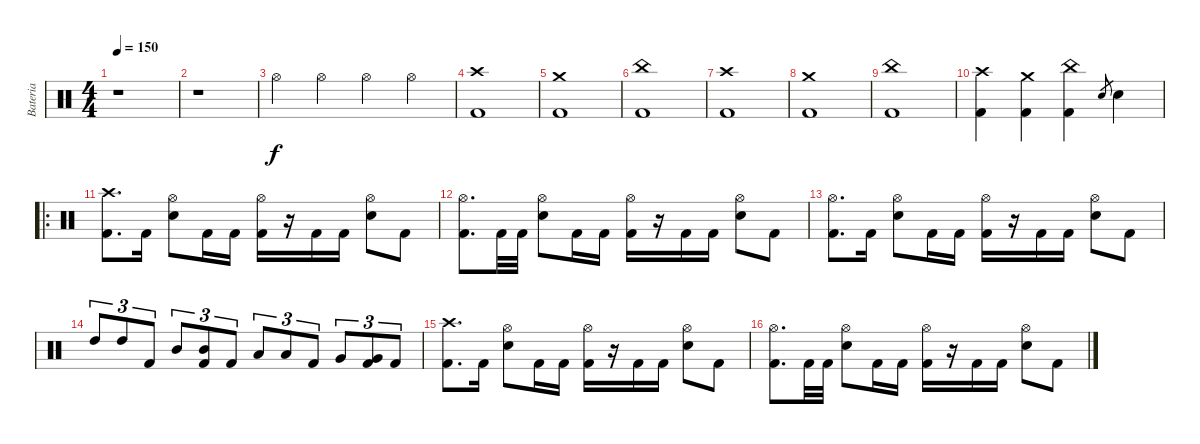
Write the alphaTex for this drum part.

\track ("Bateria" "Bateria") {instrument percussion}
\staff {score}
\articulation defaults
\ts (4 4)
\tempo 150
\clef neutral
\ks c
r.1{dy f} |
r.1 |
"Hi-Hat (open)".4 "Hi-Hat (open)".4 "Hi-Hat (open)".4 "Hi-Hat (open)".4 |
("Crash high (hit)" "Kick (hit) 2").1 |
("Crash medium (hit)" "Kick (hit) 2").1 |
("China (hit)" "Kick (hit) 2").1 |
("Crash high (hit)" "Kick (hit) 2").1 |
("Crash medium (hit)" "Kick (hit) 2").1 |
("China (hit)" "Kick (hit) 2").1 |
("Crash high (hit)" "Kick (hit) 2").4 ("Crash medium (hit)" "Kick (hit) 2").4 ("China (hit)" "Kick (hit) 2").4 "Snare (hit) 2".8{gr} "Snare (hit) 2".4 |
\ro
("Crash high (hit)" "Kick (hit) 2").8{d} "Kick (hit) 2".16 ("Hi-Hat (open)" "Snare (hit) 2").8 "Kick (hit) 2".16 "Kick (hit) 2".16 ("Hi-Hat (open)" "Kick (hit) 2").16 r.16 "Kick (hit) 2".16 "Kick (hit) 2".16 ("Hi-Hat (open)" "Snare (hit) 2").8 "Kick (hit) 2".8 |
("Hi-Hat (open)" "Kick (hit) 2").8{d} "Kick (hit) 2".32 "Kick (hit) 2".32 ("Hi-Hat (open)" "Snare (hit) 2").8 "Kick (hit) 2".16 "Kick (hit) 2".16 ("Hi-Hat (open)" "Kick (hit) 2").16 r.16 "Kick (hit) 2".16 "Kick (hit) 2".16 ("Hi-Hat (open)" "Snare (hit) 2").8 "Kick (hit) 2".8 |
("Hi-Hat (open)" "Kick (hit) 2").8{d} "Kick (hit) 2".16 ("Hi-Hat (open)" "Snare (hit) 2").8 "Kick (hit) 2".16 "Kick (hit) 2".16 ("Hi-Hat (open)" "Kick (hit) 2").16 r.16 "Kick (hit) 2".16 "Kick (hit) 2".16 ("Hi-Hat (open)" "Snare (hit) 2").8 "Kick (hit) 2".8 |
"High Tom (hit)".8{tu (3 2)} "High Tom (hit)".8{tu (3 2)} "Kick (hit) 2".8{tu (3 2)} "Mid Tom (hit)".8{tu (3 2)} ("Mid Tom (hit)" "Kick (hit) 2").8{tu (3 2)} "Kick (hit) 2".8{tu (3 2)} "Low Tom (hit)".8{tu (3 2)} "Low Tom (hit)".8{tu (3 2)} "Kick (hit) 2".8{tu (3 2)} "Very Low Tom (hit)".8{tu (3 2)} ("Very Low Tom (hit)" "Kick (hit) 2").8{tu (3 2)} "Kick (hit) 2".8{tu (3 2)} |
("Crash high (hit)" "Kick (hit) 2").8{d} "Kick (hit) 2".16 ("Hi-Hat (open)" "Snare (hit) 2").8 "Kick (hit) 2".16 "Kick (hit) 2".16 ("Hi-Hat (open)" "Kick (hit) 2").16 r.16 "Kick (hit) 2".16 "Kick (hit) 2".16 ("Hi-Hat (open)" "Snare (hit) 2").8 "Kick (hit) 2".8 |
("Hi-Hat (open)" "Kick (hit) 2").8{d} "Kick (hit) 2".32 "Kick (hit) 2".32 ("Hi-Hat (open)" "Snare (hit) 2").8 "Kick (hit) 2".16 "Kick (hit) 2".16 ("Hi-Hat (open)" "Kick (hit) 2").16 r.16 "Kick (hit) 2".16 "Kick (hit) 2".16 ("Hi-Hat (open)" "Snare (hit) 2").8 "Kick (hit) 2".8
